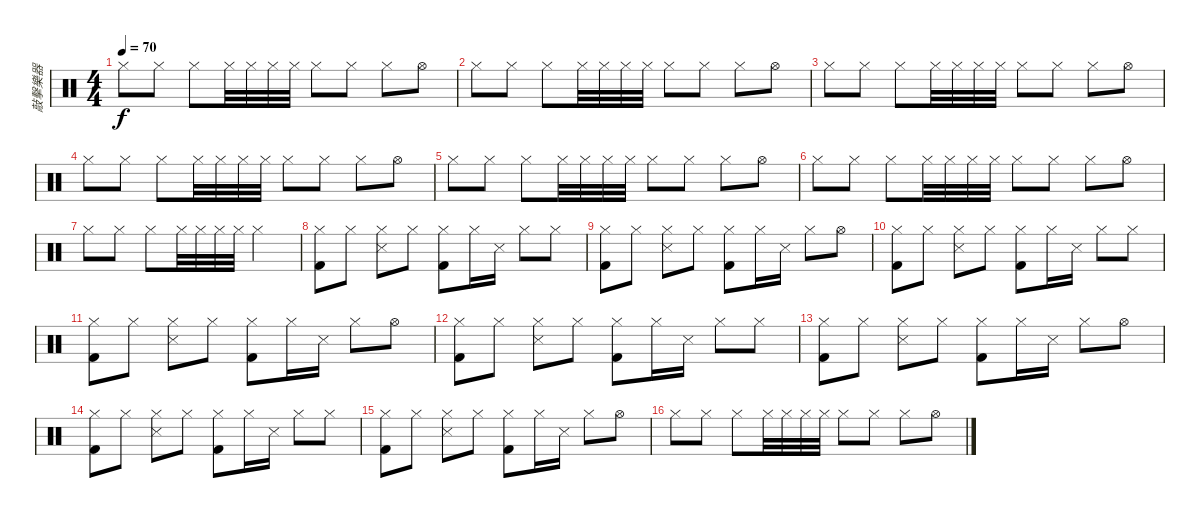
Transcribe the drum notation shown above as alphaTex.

\track ("敲擊樂器" "敲擊樂器") {instrument percussion}
\staff {score}
\articulation defaults
\ts (4 4)
\tempo 70
\clef neutral
\ks c "Hi-Hat (closed)".8{dy f} "Hi-Hat (closed)".8 "Hi-Hat (closed)".8 "Hi-Hat (closed)".32 "Hi-Hat (closed)".32 "Hi-Hat (closed)".32 "Hi-Hat (closed)".32 "Hi-Hat (closed)".8 "Hi-Hat (closed)".8 "Hi-Hat (closed)".8 "Hi-Hat (open)".8
|
"Hi-Hat (closed)".8 "Hi-Hat (closed)".8 "Hi-Hat (closed)".8 "Hi-Hat (closed)".32 "Hi-Hat (closed)".32 "Hi-Hat (closed)".32 "Hi-Hat (closed)".32 "Hi-Hat (closed)".8 "Hi-Hat (closed)".8 "Hi-Hat (closed)".8 "Hi-Hat (open)".8 |
"Hi-Hat (closed)".8 "Hi-Hat (closed)".8 "Hi-Hat (closed)".8 "Hi-Hat (closed)".32 "Hi-Hat (closed)".32 "Hi-Hat (closed)".32 "Hi-Hat (closed)".32 "Hi-Hat (closed)".8 "Hi-Hat (closed)".8 "Hi-Hat (closed)".8 "Hi-Hat (open)".8 |
"Hi-Hat (closed)".8 "Hi-Hat (closed)".8 "Hi-Hat (closed)".8 "Hi-Hat (closed)".32 "Hi-Hat (closed)".32 "Hi-Hat (closed)".32 "Hi-Hat (closed)".32 "Hi-Hat (closed)".8 "Hi-Hat (closed)".8 "Hi-Hat (closed)".8 "Hi-Hat (open)".8 |
"Hi-Hat (closed)".8 "Hi-Hat (closed)".8 "Hi-Hat (closed)".8 "Hi-Hat (closed)".32 "Hi-Hat (closed)".32 "Hi-Hat (closed)".32 "Hi-Hat (closed)".32 "Hi-Hat (closed)".8 "Hi-Hat (closed)".8 "Hi-Hat (closed)".8 "Hi-Hat (open)".8 |
"Hi-Hat (closed)".8 "Hi-Hat (closed)".8 "Hi-Hat (closed)".8 "Hi-Hat (closed)".32 "Hi-Hat (closed)".32 "Hi-Hat (closed)".32 "Hi-Hat (closed)".32 "Hi-Hat (closed)".8 "Hi-Hat (closed)".8 "Hi-Hat (closed)".8 "Hi-Hat (open)".8 |
"Hi-Hat (closed)".8 "Hi-Hat (closed)".8 "Hi-Hat (closed)".8 "Hi-Hat (closed)".32 "Hi-Hat (closed)".32 "Hi-Hat (closed)".32 "Hi-Hat (closed)".32 "Hi-Hat (closed)".2 |
("Hi-Hat (closed)" "Kick (hit) 2").8 "Hi-Hat (closed)".8 ("Hi-Hat (closed)" "Snare (side stick) 3").8 "Hi-Hat (closed)".8 ("Hi-Hat (closed)" "Kick (hit) 2").8 "Hi-Hat (closed)".16 "Snare (side stick) 3".16 "Hi-Hat (closed)".8 "Hi-Hat (closed)".8 |
("Hi-Hat (closed)" "Kick (hit) 2").8 "Hi-Hat (closed)".8 ("Hi-Hat (closed)" "Snare (side stick) 3").8 "Hi-Hat (closed)".8 ("Hi-Hat (closed)" "Kick (hit) 2").8 "Hi-Hat (closed)".16 "Snare (side stick) 3".16 "Hi-Hat (closed)".8 "Hi-Hat (open)".8 |
("Hi-Hat (closed)" "Kick (hit) 2").8 "Hi-Hat (closed)".8 ("Hi-Hat (closed)" "Snare (side stick) 3").8 "Hi-Hat (closed)".8 ("Hi-Hat (closed)" "Kick (hit) 2").8 "Hi-Hat (closed)".16 "Snare (side stick) 3".16 "Hi-Hat (closed)".8 "Hi-Hat (closed)".8 |
("Hi-Hat (closed)" "Kick (hit) 2").8 "Hi-Hat (closed)".8 ("Hi-Hat (closed)" "Snare (side stick) 3").8 "Hi-Hat (closed)".8 ("Hi-Hat (closed)" "Kick (hit) 2").8 "Hi-Hat (closed)".16 "Snare (side stick) 3".16 "Hi-Hat (closed)".8 "Hi-Hat (open)".8 |
("Hi-Hat (closed)" "Kick (hit) 2").8 "Hi-Hat (closed)".8 ("Hi-Hat (closed)" "Snare (side stick) 3").8 "Hi-Hat (closed)".8 ("Hi-Hat (closed)" "Kick (hit) 2").8 "Hi-Hat (closed)".16 "Snare (side stick) 3".16 "Hi-Hat (closed)".8 "Hi-Hat (closed)".8 |
("Hi-Hat (closed)" "Kick (hit) 2").8 "Hi-Hat (closed)".8 ("Hi-Hat (closed)" "Snare (side stick) 3").8 "Hi-Hat (closed)".8 ("Hi-Hat (closed)" "Kick (hit) 2").8 "Hi-Hat (closed)".16 "Snare (side stick) 3".16 "Hi-Hat (closed)".8 "Hi-Hat (open)".8 |
("Hi-Hat (closed)" "Kick (hit) 2").8 "Hi-Hat (closed)".8 ("Hi-Hat (closed)" "Snare (side stick) 3").8 "Hi-Hat (closed)".8 ("Hi-Hat (closed)" "Kick (hit) 2").8 "Hi-Hat (closed)".16 "Snare (side stick) 3".16 "Hi-Hat (closed)".8 "Hi-Hat (closed)".8 |
("Hi-Hat (closed)" "Kick (hit) 2").8 "Hi-Hat (closed)".8 ("Hi-Hat (closed)" "Snare (side stick) 3").8 "Hi-Hat (closed)".8 ("Hi-Hat (closed)" "Kick (hit) 2").8 "Hi-Hat (closed)".16 "Snare (side stick) 3".16 "Hi-Hat (closed)".8 "Hi-Hat (open)".8 |
"Hi-Hat (closed)".8 "Hi-Hat (closed)".8 "Hi-Hat (closed)".8 "Hi-Hat (closed)".32 "Hi-Hat (closed)".32 "Hi-Hat (closed)".32 "Hi-Hat (closed)".32 "Hi-Hat (closed)".8 "Hi-Hat (closed)".8 "Hi-Hat (closed)".8 "Hi-Hat (open)".8
